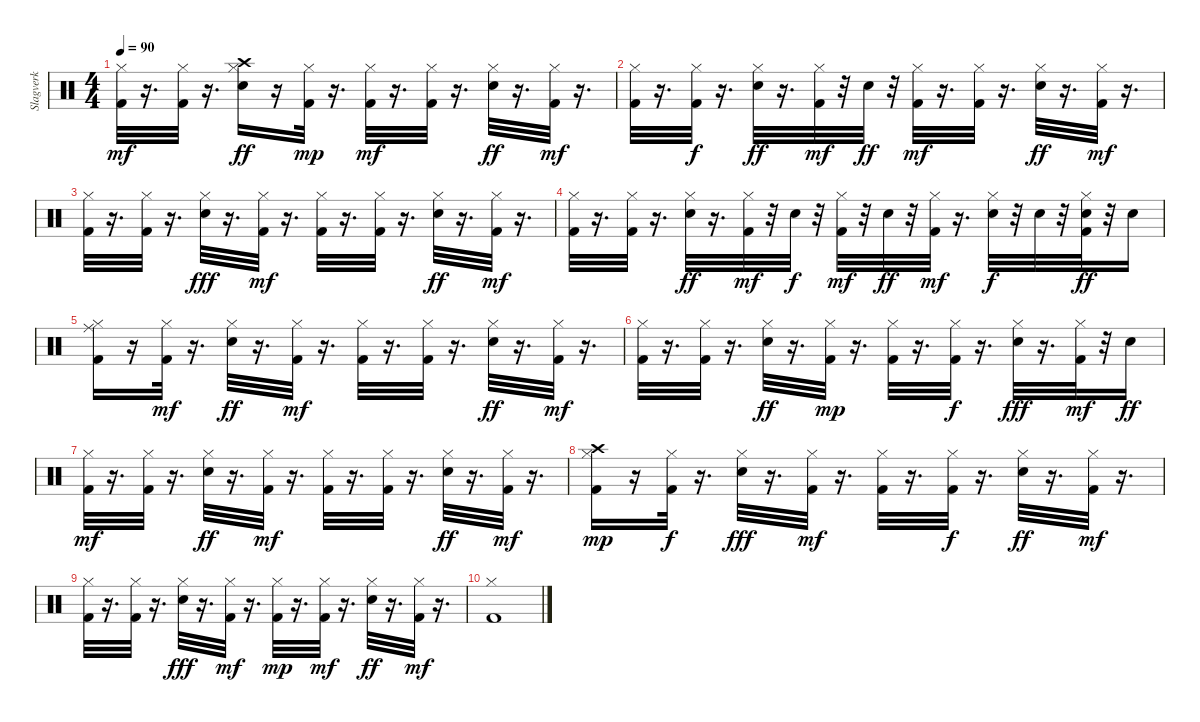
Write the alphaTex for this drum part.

\track ("Slagverk" "Slagverk") {instrument percussion}
\staff {score}
\articulation defaults
\ts (4 4)
\tempo 90
\clef neutral
\ks c
("Kick (hit) 2" "Hi-Hat (closed)").32{dy mf} r.16{d} ("Kick (hit) 2" "Hi-Hat (closed)").32 r.16{d} ("Snare (hit) 2" "Hi-Hat (closed)" "Crash high (hit)").16{dy ff} r.16 ("Kick (hit) 2" "Hi-Hat (closed)").32{dy mp} r.16{d} ("Kick (hit) 2" "Hi-Hat (closed)").32{dy mf} r.16{d} ("Kick (hit) 2" "Hi-Hat (closed)").32 r.16{d} ("Snare (hit) 2" "Hi-Hat (closed)").32{dy ff} r.16{d} ("Kick (hit) 2" "Hi-Hat (closed)").32{dy mf} r.16{d} |
("Kick (hit) 2" "Hi-Hat (closed)").32 r.16{d} ("Kick (hit) 2" "Hi-Hat (closed)").32{dy f} r.16{d} ("Snare (hit) 2" "Hi-Hat (closed)").32{dy ff} r.16{d} ("Kick (hit) 2" "Hi-Hat (closed)").32{dy mf} r.32 "Snare (hit) 2".32{dy ff} r.32 ("Kick (hit) 2" "Hi-Hat (closed)").32{dy mf} r.16{d} ("Kick (hit) 2" "Hi-Hat (closed)").32 r.16{d} ("Snare (hit) 2" "Hi-Hat (closed)").32{dy ff} r.16{d} ("Kick (hit) 2" "Hi-Hat (closed)").32{dy mf} r.16{d} |
("Kick (hit) 2" "Hi-Hat (closed)").32 r.16{d} ("Kick (hit) 2" "Hi-Hat (closed)").32 r.16{d} ("Snare (hit) 2" "Hi-Hat (closed)").32{dy fff} r.16{d} ("Kick (hit) 2" "Hi-Hat (closed)").32{dy mf} r.16{d} ("Kick (hit) 2" "Hi-Hat (closed)").32 r.16{d} ("Kick (hit) 2" "Hi-Hat (closed)").32 r.16{d} ("Snare (hit) 2" "Hi-Hat (closed)").32{dy ff} r.16{d} ("Kick (hit) 2" "Hi-Hat (closed)").32{dy mf} r.16{d} |
("Kick (hit) 2" "Hi-Hat (closed)").32 r.16{d} ("Kick (hit) 2" "Hi-Hat (closed)").32 r.16{d} ("Snare (hit) 2" "Hi-Hat (closed)").32{dy ff} r.16{d} ("Kick (hit) 2" "Hi-Hat (closed)").32{dy mf} r.32 "Snare (hit) 2".32{dy f} r.32 ("Kick (hit) 2" "Hi-Hat (closed)").32{dy mf} r.32 "Snare (hit) 2".32{dy ff} r.32 ("Kick (hit) 2" "Hi-Hat (closed)").32{dy mf} r.16{d} ("Snare (hit) 2" "Hi-Hat (closed)").32{dy f} r.32 "Snare (hit) 2".32 r.32 ("Kick (hit) 2" "Snare (hit) 2" "Hi-Hat (closed)").32{dy ff} r.32 "Snare (hit) 2".16 |
("Kick (hit) 2" "Hi-Hat (closed)" "Ride (middle)").16 r.16 ("Kick (hit) 2" "Hi-Hat (closed)").32{dy mf} r.16{d} ("Snare (hit) 2" "Hi-Hat (closed)").32{dy ff} r.16{d} ("Kick (hit) 2" "Hi-Hat (closed)").32{dy mf} r.16{d} ("Kick (hit) 2" "Hi-Hat (closed)").32 r.16{d} ("Kick (hit) 2" "Hi-Hat (closed)").32 r.16{d} ("Snare (hit) 2" "Hi-Hat (closed)").32{dy ff} r.16{d} ("Kick (hit) 2" "Hi-Hat (closed)").32{dy mf} r.16{d} |
("Kick (hit) 2" "Hi-Hat (closed)").32 r.16{d} ("Kick (hit) 2" "Hi-Hat (closed)").32 r.16{d} ("Snare (hit) 2" "Hi-Hat (closed)").32{dy ff} r.16{d} ("Kick (hit) 2" "Hi-Hat (closed)").32{dy mp} r.16{d} ("Kick (hit) 2" "Hi-Hat (closed)").32 r.16{d} ("Kick (hit) 2" "Hi-Hat (closed)").32{dy f} r.16{d} ("Snare (hit) 2" "Hi-Hat (closed)").32{dy fff} r.16{d} ("Kick (hit) 2" "Hi-Hat (closed)").32{dy mf} r.32 "Snare (hit) 2".16{dy ff} |
("Kick (hit) 2" "Hi-Hat (closed)").32{dy mf} r.16{d} ("Kick (hit) 2" "Hi-Hat (closed)").32 r.16{d} ("Snare (hit) 2" "Hi-Hat (closed)").32{dy ff} r.16{d} ("Kick (hit) 2" "Hi-Hat (closed)").32{dy mf} r.16{d} ("Kick (hit) 2" "Hi-Hat (closed)").32 r.16{d} ("Kick (hit) 2" "Hi-Hat (closed)").32 r.16{d} ("Snare (hit) 2" "Hi-Hat (closed)").32{dy ff} r.16{d} ("Kick (hit) 2" "Hi-Hat (closed)").32{dy mf} r.16{d} |
("Kick (hit) 2" "Hi-Hat (closed)" "Crash high (hit)").16{dy mp} r.16 ("Kick (hit) 2" "Hi-Hat (closed)").32{dy f} r.16{d} ("Snare (hit) 2" "Hi-Hat (closed)").32{dy fff} r.16{d} ("Kick (hit) 2" "Hi-Hat (closed)").32{dy mf} r.16{d} ("Kick (hit) 2" "Hi-Hat (closed)").32 r.16{d} ("Kick (hit) 2" "Hi-Hat (closed)").32{dy f} r.16{d} ("Snare (hit) 2" "Hi-Hat (closed)").32{dy ff} r.16{d} ("Kick (hit) 2" "Hi-Hat (closed)").32{dy mf} r.16{d} |
("Kick (hit) 2" "Hi-Hat (closed)").32 r.16{d} ("Kick (hit) 2" "Hi-Hat (closed)").32 r.16{d} ("Snare (hit) 2" "Hi-Hat (closed)").32{dy fff} r.16{d} ("Kick (hit) 2" "Hi-Hat (closed)").32{dy mf} r.16{d} ("Kick (hit) 2" "Hi-Hat (closed)").32{dy mp} r.16{d} ("Kick (hit) 2" "Hi-Hat (closed)").32{dy mf} r.16{d} ("Snare (hit) 2" "Hi-Hat (closed)").32{dy ff} r.16{d} ("Kick (hit) 2" "Hi-Hat (closed)").32{dy mf} r.16{d} |
("Kick (hit) 2" "Hi-Hat (closed)").1
